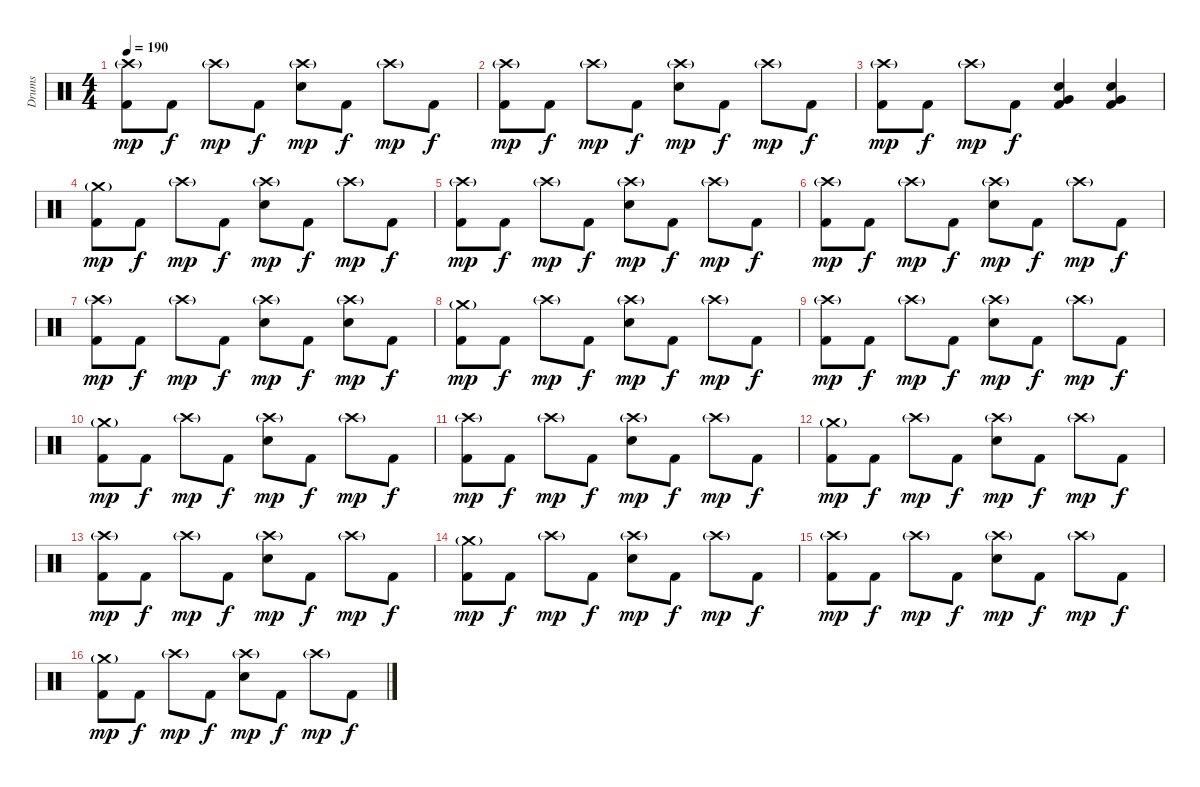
\track ("Drums" "Drums") {instrument percussion}
\staff {score}
\articulation defaults
\ts (4 4)
\tempo 190
\clef neutral
\ks c
("Crash high (hit)"{g} "Kick (hit) 2").8{dy mp} "Kick (hit) 2".8{dy f} "Crash high (hit)"{g}.8{dy mp} "Kick (hit) 2".8{dy f} ("Crash high (hit)"{g} "Snare (hit) 2").8{dy mp} "Kick (hit) 2".8{dy f} "Crash high (hit)"{g}.8{dy mp} "Kick (hit) 2".8{dy f} |
("Crash high (hit)"{g} "Kick (hit) 2").8{dy mp} "Kick (hit) 2".8{dy f} "Crash high (hit)"{g}.8{dy mp} "Kick (hit) 2".8{dy f} ("Crash high (hit)"{g} "Snare (hit) 2").8{dy mp} "Kick (hit) 2".8{dy f} "Crash high (hit)"{g}.8{dy mp} "Kick (hit) 2".8{dy f} |
("Crash high (hit)"{g} "Kick (hit) 2").8{dy mp} "Kick (hit) 2".8{dy f} "Crash high (hit)"{g}.8{dy mp} "Kick (hit) 2".8{dy f} ("Snare (hit) 2" "Very Low Tom (hit)" "Kick (hit) 2").4 ("Snare (hit) 2" "Very Low Tom (hit)" "Kick (hit) 2").4 |
("Crash medium (hit)"{g} "Kick (hit) 2").8{dy mp} "Kick (hit) 2".8{dy f} "Crash high (hit)"{g}.8{dy mp} "Kick (hit) 2".8{dy f} ("Crash high (hit)"{g} "Snare (hit) 2").8{dy mp} "Kick (hit) 2".8{dy f} "Crash high (hit)"{g}.8{dy mp} "Kick (hit) 2".8{dy f} |
("Crash high (hit)"{g} "Kick (hit) 2").8{dy mp} "Kick (hit) 2".8{dy f} "Crash high (hit)"{g}.8{dy mp} "Kick (hit) 2".8{dy f} ("Crash high (hit)"{g} "Snare (hit) 2").8{dy mp} "Kick (hit) 2".8{dy f} "Crash high (hit)"{g}.8{dy mp} "Kick (hit) 2".8{dy f} |
("Crash high (hit)"{g} "Kick (hit) 2").8{dy mp} "Kick (hit) 2".8{dy f} "Crash high (hit)"{g}.8{dy mp} "Kick (hit) 2".8{dy f} ("Crash high (hit)"{g} "Snare (hit) 2").8{dy mp} "Kick (hit) 2".8{dy f} "Crash high (hit)"{g}.8{dy mp} "Kick (hit) 2".8{dy f} |
("Crash high (hit)"{g} "Kick (hit) 2").8{dy mp} "Kick (hit) 2".8{dy f} "Crash high (hit)"{g}.8{dy mp} "Kick (hit) 2".8{dy f} ("Crash high (hit)"{g} "Snare (hit) 2").8{dy mp} "Kick (hit) 2".8{dy f} ("Crash high (hit)"{g} "Snare (hit) 2").8{dy mp} "Kick (hit) 2".8{dy f} |
("Crash medium (hit)"{g} "Kick (hit) 2").8{dy mp} "Kick (hit) 2".8{dy f} "Crash high (hit)"{g}.8{dy mp} "Kick (hit) 2".8{dy f} ("Crash high (hit)"{g} "Snare (hit) 2").8{dy mp} "Kick (hit) 2".8{dy f} "Crash high (hit)"{g}.8{dy mp} "Kick (hit) 2".8{dy f} |
("Crash high (hit)"{g} "Kick (hit) 2").8{dy mp} "Kick (hit) 2".8{dy f} "Crash high (hit)"{g}.8{dy mp} "Kick (hit) 2".8{dy f} ("Crash high (hit)"{g} "Snare (hit) 2").8{dy mp} "Kick (hit) 2".8{dy f} "Crash high (hit)"{g}.8{dy mp} "Kick (hit) 2".8{dy f} |
("Crash medium (hit)"{g} "Kick (hit) 2").8{dy mp} "Kick (hit) 2".8{dy f} "Crash high (hit)"{g}.8{dy mp} "Kick (hit) 2".8{dy f} ("Crash high (hit)"{g} "Snare (hit) 2").8{dy mp} "Kick (hit) 2".8{dy f} "Crash high (hit)"{g}.8{dy mp} "Kick (hit) 2".8{dy f} |
("Crash high (hit)"{g} "Kick (hit) 2").8{dy mp} "Kick (hit) 2".8{dy f} "Crash high (hit)"{g}.8{dy mp} "Kick (hit) 2".8{dy f} ("Crash high (hit)"{g} "Snare (hit) 2").8{dy mp} "Kick (hit) 2".8{dy f} "Crash high (hit)"{g}.8{dy mp} "Kick (hit) 2".8{dy f} |
("Crash medium (hit)"{g} "Kick (hit) 2").8{dy mp} "Kick (hit) 2".8{dy f} "Crash high (hit)"{g}.8{dy mp} "Kick (hit) 2".8{dy f} ("Crash high (hit)"{g} "Snare (hit) 2").8{dy mp} "Kick (hit) 2".8{dy f} "Crash high (hit)"{g}.8{dy mp} "Kick (hit) 2".8{dy f} |
("Crash high (hit)"{g} "Kick (hit) 2").8{dy mp} "Kick (hit) 2".8{dy f} "Crash high (hit)"{g}.8{dy mp} "Kick (hit) 2".8{dy f} ("Crash high (hit)"{g} "Snare (hit) 2").8{dy mp} "Kick (hit) 2".8{dy f} "Crash high (hit)"{g}.8{dy mp} "Kick (hit) 2".8{dy f} |
("Crash medium (hit)"{g} "Kick (hit) 2").8{dy mp} "Kick (hit) 2".8{dy f} "Crash high (hit)"{g}.8{dy mp} "Kick (hit) 2".8{dy f} ("Crash high (hit)"{g} "Snare (hit) 2").8{dy mp} "Kick (hit) 2".8{dy f} "Crash high (hit)"{g}.8{dy mp} "Kick (hit) 2".8{dy f} |
("Crash high (hit)"{g} "Kick (hit) 2").8{dy mp} "Kick (hit) 2".8{dy f} "Crash high (hit)"{g}.8{dy mp} "Kick (hit) 2".8{dy f} ("Crash high (hit)"{g} "Snare (hit) 2").8{dy mp} "Kick (hit) 2".8{dy f} "Crash high (hit)"{g}.8{dy mp} "Kick (hit) 2".8{dy f} |
("Crash medium (hit)"{g} "Kick (hit) 2").8{dy mp} "Kick (hit) 2".8{dy f} "Crash high (hit)"{g}.8{dy mp} "Kick (hit) 2".8{dy f} ("Crash high (hit)"{g} "Snare (hit) 2").8{dy mp} "Kick (hit) 2".8{dy f} "Crash high (hit)"{g}.8{dy mp} "Kick (hit) 2".8{dy f}
